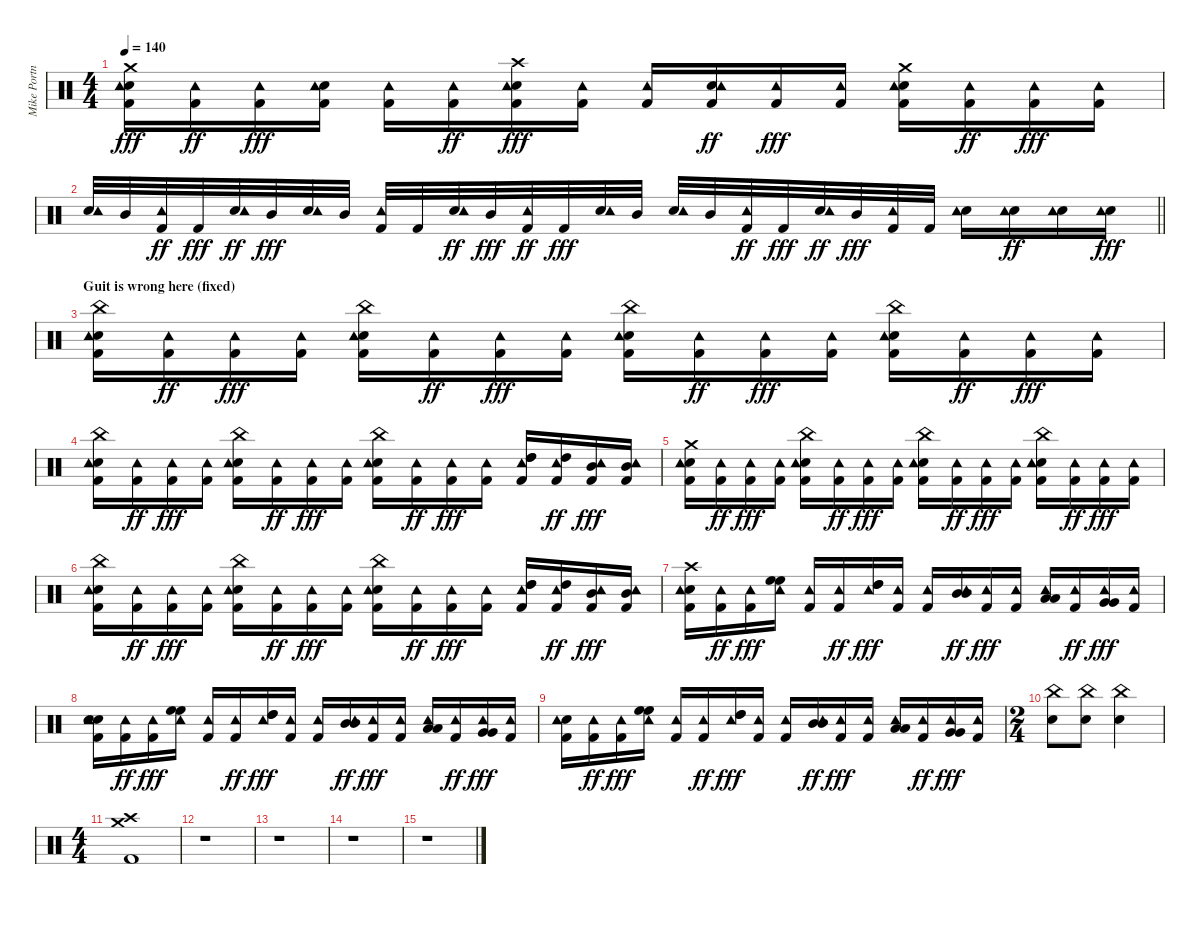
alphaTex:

\track ("Mike Portnoy" "Mike Portn") {instrument percussion}
\staff {score}
\articulation defaults
\ts (4 4)
\tempo 140
\clef neutral
\ks c
("Crash medium (hit)" "Snare (hit) 2" "Kick (hit) 2" "Tambourine (hit)").16{dy fff} ("Kick (hit) 2" "Tambourine (hit)").16{dy ff} ("Kick (hit) 2" "Tambourine (hit)").16{dy fff} ("Snare (hit) 2" "Kick (hit) 2" "Tambourine (hit)").16 ("Kick (hit) 2" "Tambourine (hit)").16 ("Kick (hit) 2" "Tambourine (hit)").16{dy ff} ("Crash high (hit)" "Snare (hit) 2" "Kick (hit) 2" "Tambourine (hit)").16{dy fff} ("Kick (hit) 2" "Tambourine (hit)").16 ("Kick (hit) 2" "Tambourine (hit)").16 ("Snare (hit) 2" "Kick (hit) 2" "Tambourine (hit)").16{dy ff} ("Kick (hit) 2" "Tambourine (hit)").16{dy fff} ("Kick (hit) 2" "Tambourine (hit)").16 ("Crash medium (hit)" "Snare (hit) 2" "Kick (hit) 2" "Tambourine (hit)").16 ("Kick (hit) 2" "Tambourine (hit)").16{dy ff} ("Kick (hit) 2" "Tambourine (hit)").16{dy fff} ("Kick (hit) 2" "Tambourine (hit)").16 |
\barLineRight lightlight
("Snare (hit) 2" "Tambourine (hit)").32 "Mid Tom (hit)".32 ("Kick (hit) 2" "Tambourine (hit)").32{dy ff} "Kick (hit) 2".32{dy fff} ("Snare (hit) 2" "Tambourine (hit)").32{dy ff} "Mid Tom (hit)".32{dy fff} ("Snare (hit) 2" "Tambourine (hit)").32 "Mid Tom (hit)".32 ("Kick (hit) 2" "Tambourine (hit)").32 "Kick (hit) 2".32 ("Snare (hit) 2" "Tambourine (hit)").32{dy ff} "Mid Tom (hit)".32{dy fff} ("Kick (hit) 2" "Tambourine (hit)").32{dy ff} "Kick (hit) 2".32{dy fff} ("Snare (hit) 2" "Tambourine (hit)").32 "Mid Tom (hit)".32 ("Snare (hit) 2" "Tambourine (hit)").32 "Mid Tom (hit)".32 ("Kick (hit) 2" "Tambourine (hit)").32{dy ff} "Kick (hit) 2".32{dy fff} ("Snare (hit) 2" "Tambourine (hit)").32{dy ff} "Mid Tom (hit)".32{dy fff} ("Kick (hit) 2" "Tambourine (hit)").32 "Kick (hit) 2".32 ("Snare (hit) 2" "Tambourine (hit)").16 ("Snare (hit) 2" "Tambourine (hit)").16{dy ff} ("Snare (hit) 2" "Tambourine (hit)").16 ("Snare (hit) 2" "Tambourine (hit)").16{dy fff} |
\section ("" "Guit is wrong here (fixed)")
("China (hit)" "Snare (hit) 2" "Kick (hit) 2" "Tambourine (hit)").16 ("Kick (hit) 2" "Tambourine (hit)").16{dy ff} ("Kick (hit) 2" "Tambourine (hit)").16{dy fff} ("Kick (hit) 2" "Tambourine (hit)").16 ("China (hit)" "Snare (hit) 2" "Kick (hit) 2" "Tambourine (hit)").16 ("Kick (hit) 2" "Tambourine (hit)").16{dy ff} ("Kick (hit) 2" "Tambourine (hit)").16{dy fff} ("Kick (hit) 2" "Tambourine (hit)").16 ("China (hit)" "Snare (hit) 2" "Kick (hit) 2" "Tambourine (hit)").16 ("Kick (hit) 2" "Tambourine (hit)").16{dy ff} ("Kick (hit) 2" "Tambourine (hit)").16{dy fff} ("Kick (hit) 2" "Tambourine (hit)").16 ("China (hit)" "Snare (hit) 2" "Kick (hit) 2" "Tambourine (hit)").16 ("Kick (hit) 2" "Tambourine (hit)").16{dy ff} ("Kick (hit) 2" "Tambourine (hit)").16{dy fff} ("Kick (hit) 2" "Tambourine (hit)").16 |
("China (hit)" "Snare (hit) 2" "Kick (hit) 2" "Tambourine (hit)").16 ("Kick (hit) 2" "Tambourine (hit)").16{dy ff} ("Kick (hit) 2" "Tambourine (hit)").16{dy fff} ("Kick (hit) 2" "Tambourine (hit)").16 ("China (hit)" "Snare (hit) 2" "Kick (hit) 2" "Tambourine (hit)").16 ("Kick (hit) 2" "Tambourine (hit)").16{dy ff} ("Kick (hit) 2" "Tambourine (hit)").16{dy fff} ("Kick (hit) 2" "Tambourine (hit)").16 ("China (hit)" "Snare (hit) 2" "Kick (hit) 2" "Tambourine (hit)").16 ("Kick (hit) 2" "Tambourine (hit)").16{dy ff} ("Kick (hit) 2" "Tambourine (hit)").16{dy fff} ("Kick (hit) 2" "Tambourine (hit)").16 ("High Tom (hit)" "High Tom (hit)" "Kick (hit) 2" "Tambourine (hit)").16 ("High Tom (hit)" "Kick (hit) 2" "Tambourine (hit)").16{dy ff} ("Mid Tom (hit)" "Kick (hit) 2" "Tambourine (hit)").16{dy fff} ("Mid Tom (hit)" "Kick (hit) 2" "Tambourine (hit)").16 |
("Crash medium (hit)" "Snare (hit) 2" "Kick (hit) 2" "Tambourine (hit)").16 ("Kick (hit) 2" "Tambourine (hit)").16{dy ff} ("Kick (hit) 2" "Tambourine (hit)").16{dy fff} ("Kick (hit) 2" "Tambourine (hit)").16 ("China (hit)" "Snare (hit) 2" "Kick (hit) 2" "Tambourine (hit)").16 ("Kick (hit) 2" "Tambourine (hit)").16{dy ff} ("Kick (hit) 2" "Tambourine (hit)").16{dy fff} ("Kick (hit) 2" "Tambourine (hit)").16 ("China (hit)" "Snare (hit) 2" "Kick (hit) 2" "Tambourine (hit)").16 ("Kick (hit) 2" "Tambourine (hit)").16{dy ff} ("Kick (hit) 2" "Tambourine (hit)").16{dy fff} ("Kick (hit) 2" "Tambourine (hit)").16 ("China (hit)" "Snare (hit) 2" "Kick (hit) 2" "Tambourine (hit)").16 ("Kick (hit) 2" "Tambourine (hit)").16{dy ff} ("Kick (hit) 2" "Tambourine (hit)").16{dy fff} ("Kick (hit) 2" "Tambourine (hit)").16 |
("China (hit)" "Snare (hit) 2" "Kick (hit) 2" "Tambourine (hit)").16 ("Kick (hit) 2" "Tambourine (hit)").16{dy ff} ("Kick (hit) 2" "Tambourine (hit)").16{dy fff} ("Kick (hit) 2" "Tambourine (hit)").16 ("China (hit)" "Snare (hit) 2" "Kick (hit) 2" "Tambourine (hit)").16 ("Kick (hit) 2" "Tambourine (hit)").16{dy ff} ("Kick (hit) 2" "Tambourine (hit)").16{dy fff} ("Kick (hit) 2" "Tambourine (hit)").16 ("China (hit)" "Snare (hit) 2" "Kick (hit) 2" "Tambourine (hit)").16 ("Kick (hit) 2" "Tambourine (hit)").16{dy ff} ("Kick (hit) 2" "Tambourine (hit)").16{dy fff} ("Kick (hit) 2" "Tambourine (hit)").16 ("High Tom (hit)" "High Tom (hit)" "Kick (hit) 2" "Tambourine (hit)").16 ("High Tom (hit)" "Kick (hit) 2" "Tambourine (hit)").16{dy ff} ("Mid Tom (hit)" "Kick (hit) 2" "Tambourine (hit)").16{dy fff} ("Mid Tom (hit)" "Kick (hit) 2" "Tambourine (hit)").16 |
("Crash high (hit)" "Snare (hit) 2" "Kick (hit) 2" "Tambourine (hit)").16 ("Kick (hit) 2" "Tambourine (hit)").16{dy ff} ("Kick (hit) 2" "Tambourine (hit)").16{dy fff} ("High Floor Tom (hit)" "High Floor Tom (hit)" "Tambourine (hit)").16 ("Kick (hit) 2" "Tambourine (hit)").16 ("Kick (hit) 2" "Tambourine (hit)").16{dy ff} ("High Tom (hit)" "High Tom (hit)" "Tambourine (hit)").16{dy fff} ("Kick (hit) 2" "Tambourine (hit)").16 ("Kick (hit) 2" "Tambourine (hit)").16 ("Mid Tom (hit)" "Mid Tom (hit)" "Tambourine (hit)").16{dy ff} ("Kick (hit) 2" "Tambourine (hit)").16{dy fff} ("Kick (hit) 2" "Tambourine (hit)").16 ("Low Tom (hit)" "Low Tom (hit)" "Tambourine (hit)").16 ("Kick (hit) 2" "Tambourine (hit)").16{dy ff} ("Very Low Tom (hit)" "Very Low Tom (hit)" "Tambourine (hit)").16{dy fff} ("Kick (hit) 2" "Tambourine (hit)").16 |
("Snare (hit) 2" "Snare (hit) 2" "Kick (hit) 2" "Tambourine (hit)").16 ("Kick (hit) 2" "Tambourine (hit)").16{dy ff} ("Kick (hit) 2" "Tambourine (hit)").16{dy fff} ("High Floor Tom (hit)" "High Floor Tom (hit)" "Tambourine (hit)").16 ("Kick (hit) 2" "Tambourine (hit)").16 ("Kick (hit) 2" "Tambourine (hit)").16{dy ff} ("High Tom (hit)" "High Tom (hit)" "Tambourine (hit)").16{dy fff} ("Kick (hit) 2" "Tambourine (hit)").16 ("Kick (hit) 2" "Tambourine (hit)").16 ("Mid Tom (hit)" "Mid Tom (hit)" "Tambourine (hit)").16{dy ff} ("Kick (hit) 2" "Tambourine (hit)").16{dy fff} ("Kick (hit) 2" "Tambourine (hit)").16 ("Low Tom (hit)" "Low Tom (hit)" "Tambourine (hit)").16 ("Kick (hit) 2" "Tambourine (hit)").16{dy ff} ("Very Low Tom (hit)" "Very Low Tom (hit)" "Tambourine (hit)").16{dy fff} ("Kick (hit) 2" "Tambourine (hit)").16 |
("Snare (hit) 2" "Kick (hit) 2" "Tambourine (hit)").16 ("Kick (hit) 2" "Tambourine (hit)").16{dy ff} ("Kick (hit) 2" "Tambourine (hit)").16{dy fff} ("High Floor Tom (hit)" "High Floor Tom (hit)" "Tambourine (hit)").16 ("Kick (hit) 2" "Tambourine (hit)").16 ("Kick (hit) 2" "Tambourine (hit)").16{dy ff} ("High Tom (hit)" "High Tom (hit)" "Tambourine (hit)").16{dy fff} ("Kick (hit) 2" "Tambourine (hit)").16 ("Kick (hit) 2" "Tambourine (hit)").16 ("Mid Tom (hit)" "Mid Tom (hit)" "Tambourine (hit)").16{dy ff} ("Kick (hit) 2" "Tambourine (hit)").16{dy fff} ("Kick (hit) 2" "Tambourine (hit)").16 ("Low Tom (hit)" "Low Tom (hit)" "Tambourine (hit)").16 ("Kick (hit) 2" "Tambourine (hit)").16{dy ff} ("Very Low Tom (hit)" "Very Low Tom (hit)" "Tambourine (hit)").16{dy fff} ("Kick (hit) 2" "Tambourine (hit)").16 |
\ts (2 4)
("China (hit)" "Snare (hit) 2").8 ("China (hit)" "Snare (hit) 2").8 ("China (hit)" "Snare (hit) 2").4 |
\ts (4 4)
("Crash high (hit)" "Crash medium (hit)" "Kick (hit) 2").1 |
r.1 |
r.1 |
r.1 |
r.1
